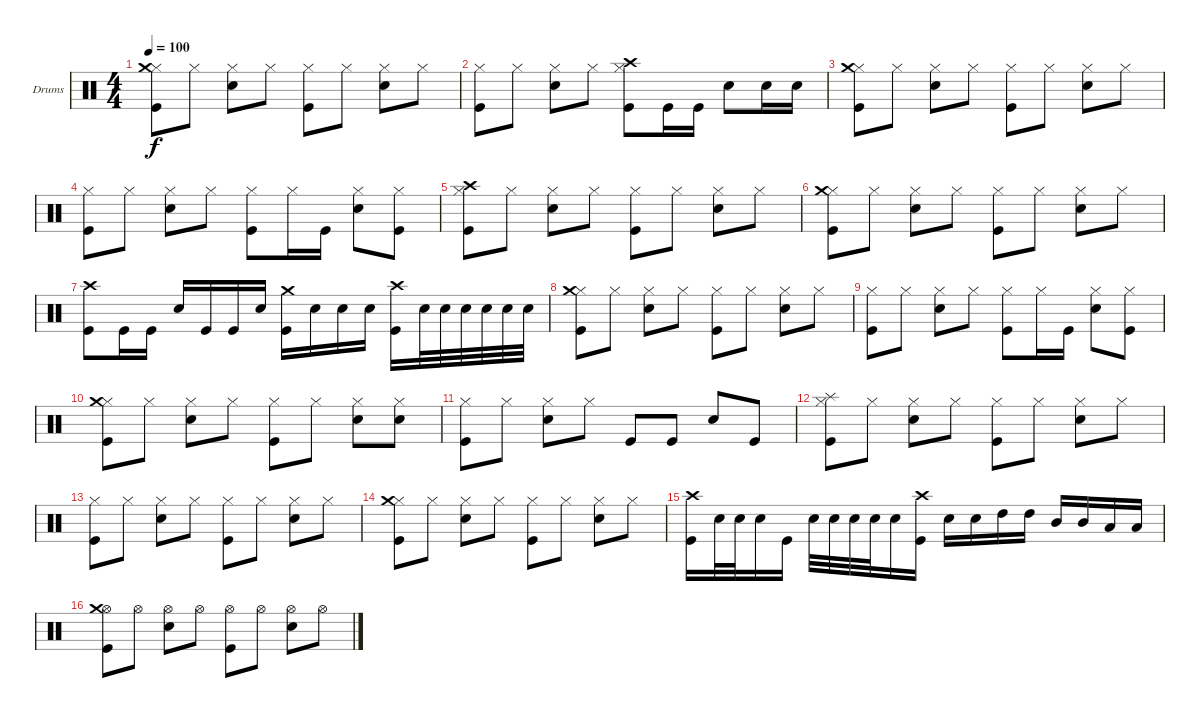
\defaultSystemsLayout 4
\bracketExtendMode groupsimilarinstruments
\firstSystemTrackNameOrientation horizontal
\otherSystemsTrackNameOrientation horizontal
\track ("Nick Menza " "Drums") {instrument percussion}
\staff {score}
\articulation defaults
\ts (4 4)
\tempo 100
\clef neutral
\ks c
("Hi-Hat (closed)" "Kick (hit)" "Crash medium (hit)").8{dy f} "Hi-Hat (closed)".8 ("Hi-Hat (closed)" "Snare (hit) 2").8 "Hi-Hat (closed)".8 ("Hi-Hat (closed)" "Kick (hit)").8 "Hi-Hat (closed)".8 ("Hi-Hat (closed)" "Snare (hit) 2").8 "Hi-Hat (closed)".8 |
("Hi-Hat (closed)" "Kick (hit)").8 "Hi-Hat (closed)".8 ("Hi-Hat (closed)" "Snare (hit) 2").8 "Hi-Hat (closed)".8 ("Hi-Hat (closed)" "Kick (hit)" "Crash high (hit)").8 "Kick (hit)".16 "Kick (hit)".16 "Snare (hit) 2".8 "Snare (hit) 2".16 "Snare (hit) 2".16 |
("Hi-Hat (closed)" "Kick (hit)" "Crash medium (hit)").8 "Hi-Hat (closed)".8 ("Hi-Hat (closed)" "Snare (hit) 2").8 "Hi-Hat (closed)".8 ("Hi-Hat (closed)" "Kick (hit)").8 "Hi-Hat (closed)".8 ("Hi-Hat (closed)" "Snare (hit) 2").8 "Hi-Hat (closed)".8 |
("Hi-Hat (closed)" "Kick (hit)").8 "Hi-Hat (closed)".8 ("Hi-Hat (closed)" "Snare (hit) 2").8 "Hi-Hat (closed)".8 ("Hi-Hat (closed)" "Kick (hit)").8 "Hi-Hat (closed)".16 "Kick (hit)".16 ("Hi-Hat (closed)" "Snare (hit) 2").8 ("Hi-Hat (closed)" "Kick (hit)").8 |
("Hi-Hat (closed)" "Kick (hit)" "Crash high (hit)").8 "Hi-Hat (closed)".8 ("Hi-Hat (closed)" "Snare (hit) 2").8 "Hi-Hat (closed)".8 ("Hi-Hat (closed)" "Kick (hit)").8 "Hi-Hat (closed)".8 ("Hi-Hat (closed)" "Snare (hit) 2").8 "Hi-Hat (closed)".8 |
("Hi-Hat (closed)" "Kick (hit)" "Crash medium (hit)").8 "Hi-Hat (closed)".8 ("Hi-Hat (closed)" "Snare (hit) 2").8 "Hi-Hat (closed)".8 ("Hi-Hat (closed)" "Kick (hit)").8 "Hi-Hat (closed)".8 ("Hi-Hat (closed)" "Snare (hit) 2").8 "Hi-Hat (closed)".8 |
("Kick (hit)" "Crash high (hit)").8 "Kick (hit)".16 "Kick (hit)".16 "Snare (hit) 2".16 "Kick (hit)".16 "Kick (hit)".16 "Snare (hit) 2".16 ("Kick (hit)" "Crash medium (hit)").16 "Snare (hit) 2".16 "Snare (hit) 2".16 "Snare (hit) 2".16 ("Kick (hit)" "Crash high (hit)").16 "Snare (hit) 2".32 "Snare (hit) 2".32 "Snare (hit) 2".32 "Snare (hit) 2".32 "Snare (hit) 2".32 "Snare (hit) 2".32 |
("Hi-Hat (closed)" "Kick (hit)" "Crash medium (hit)").8 "Hi-Hat (closed)".8 ("Hi-Hat (closed)" "Snare (hit) 2").8 "Hi-Hat (closed)".8 ("Hi-Hat (closed)" "Kick (hit)").8 "Hi-Hat (closed)".8 ("Hi-Hat (closed)" "Snare (hit) 2").8 "Hi-Hat (closed)".8 |
("Hi-Hat (closed)" "Kick (hit)").8 "Hi-Hat (closed)".8 ("Hi-Hat (closed)" "Snare (hit) 2").8 "Hi-Hat (closed)".8 ("Hi-Hat (closed)" "Kick (hit)").8 "Hi-Hat (closed)".16 "Kick (hit)".16 ("Hi-Hat (closed)" "Snare (hit) 2").8 ("Hi-Hat (closed)" "Kick (hit)").8 |
("Hi-Hat (closed)" "Kick (hit)" "Crash medium (hit)").8 "Hi-Hat (closed)".8 ("Hi-Hat (closed)" "Snare (hit) 2").8 "Hi-Hat (closed)".8 ("Hi-Hat (closed)" "Kick (hit)").8 "Hi-Hat (closed)".8 ("Hi-Hat (closed)" "Snare (hit) 2").8 ("Hi-Hat (closed)" "Snare (hit) 2").8 |
("Hi-Hat (closed)" "Kick (hit)").8 "Hi-Hat (closed)".8 ("Hi-Hat (closed)" "Snare (hit) 2").8 "Hi-Hat (closed)".8 "Kick (hit)".8 "Kick (hit)".8 "Snare (hit) 2".8 "Kick (hit)".8 |
("Hi-Hat (closed)" "Kick (hit)" "Splash (hit)").8 "Hi-Hat (closed)".8 ("Hi-Hat (closed)" "Snare (hit) 2").8 "Hi-Hat (closed)".8 ("Hi-Hat (closed)" "Kick (hit)").8 "Hi-Hat (closed)".8 ("Hi-Hat (closed)" "Snare (hit) 2").8 "Hi-Hat (closed)".8 |
("Hi-Hat (closed)" "Kick (hit)").8 "Hi-Hat (closed)".8 ("Hi-Hat (closed)" "Snare (hit) 2").8 "Hi-Hat (closed)".8 ("Hi-Hat (closed)" "Kick (hit)").8 "Hi-Hat (closed)".8 ("Hi-Hat (closed)" "Snare (hit) 2").8 "Hi-Hat (closed)".8 |
("Hi-Hat (closed)" "Kick (hit)" "Crash medium (hit)").8 "Hi-Hat (closed)".8 ("Hi-Hat (closed)" "Snare (hit) 2").8 "Hi-Hat (closed)".8 ("Hi-Hat (closed)" "Kick (hit)").8 "Hi-Hat (closed)".8 ("Hi-Hat (closed)" "Snare (hit) 2").8 "Hi-Hat (closed)".8 |
("Kick (hit)" "Crash high (hit)").16 "Snare (hit) 2".32 "Snare (hit) 2".32 "Snare (hit) 2".16 "Kick (hit)".16 "Snare (hit) 2".32 "Snare (hit) 2".32 "Snare (hit) 2".32 "Snare (hit) 2".32 "Snare (hit) 2".16 ("Kick (hit)" "Crash high (hit)").16 "Snare (hit) 2".16 "Snare (hit) 2".16 "High Tom (hit)".16 "High Tom (hit)".16 "Mid Tom (hit)".16 "Mid Tom (hit)".16 "Low Tom (hit)".16 "Low Tom (hit)".16 |
("Hi-Hat (open)" "Kick (hit)" "Crash medium (hit)").8 "Hi-Hat (open)".8 ("Hi-Hat (open)" "Snare (hit) 2").8 "Hi-Hat (open)".8 ("Hi-Hat (open)" "Kick (hit)").8 "Hi-Hat (open)".8 ("Hi-Hat (open)" "Snare (hit) 2").8 "Hi-Hat (open)".8
